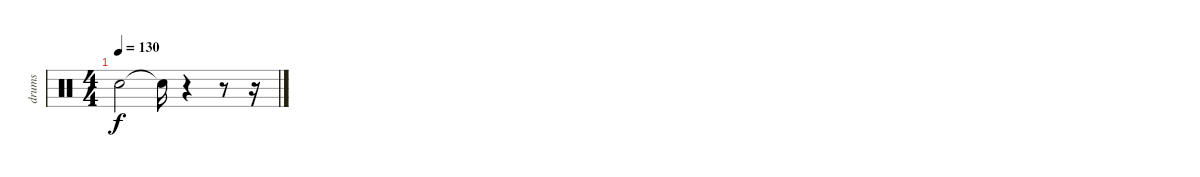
\track ("drums" "drums") {instrument percussion}
\staff {score}
\articulation defaults
\ts (4 4)
\tempo 130
\clef neutral
\ks c "Snare (hit)"{t}.2{dy f} "Snare (hit)"{t}.16
r.4 r.8 r.16
